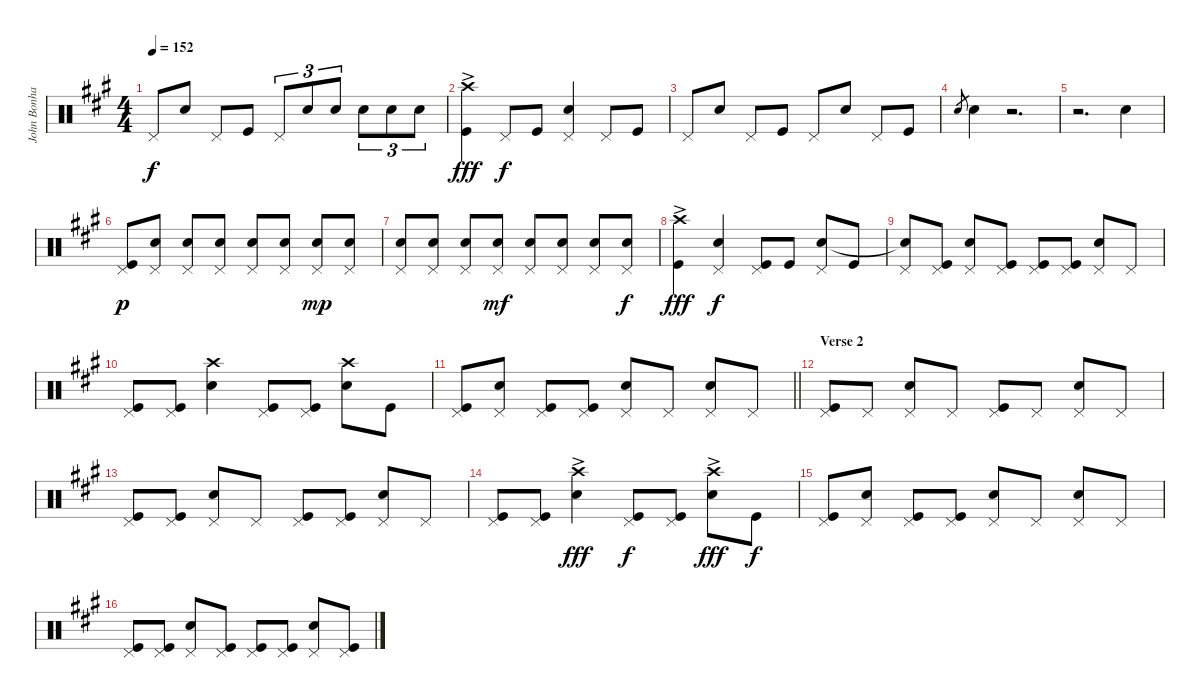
\track ("John Bonham" "John Bonha") {instrument percussion}
\staff {score}
\articulation defaults
\ts (4 4)
\tempo 152
\clef neutral
\ks a "Pedal Hi-Hat (hit)".8{dy f} "Snare (hit) 2".8 "Pedal Hi-Hat (hit)".8 "Kick (hit)".8 "Pedal Hi-Hat (hit)".8{tu (3 2)} "Snare (hit) 2".8{tu (3 2)} "Snare (hit) 2".8{tu (3 2)} "Snare (hit) 2".8{tu (3 2)} "Snare (hit) 2".8{tu (3 2)} "Snare (hit) 2".8{tu (3 2)}
|
("Crash high (hit)"{ac} "Kick (hit)").4{dy fff} "Pedal Hi-Hat (hit)".8{dy f} "Kick (hit)".8 ("Pedal Hi-Hat (hit)" "Snare (hit) 2").4 "Pedal Hi-Hat (hit)".8 "Kick (hit)".8 |
"Pedal Hi-Hat (hit)".8 "Snare (hit) 2".8 "Pedal Hi-Hat (hit)".8 "Kick (hit)".8 "Pedal Hi-Hat (hit)".8 "Snare (hit) 2".8 "Pedal Hi-Hat (hit)".8 "Kick (hit)".8 |
"Snare (hit) 2".8{gr} "Snare (hit) 2".4 r.2{d} |
r.2{d} "Snare (hit) 2".4 |
("Pedal Hi-Hat (hit)" "Kick (hit)").8{dy p} ("Pedal Hi-Hat (hit)" "Snare (hit) 2").8 ("Pedal Hi-Hat (hit)" "Snare (hit) 2").8 ("Pedal Hi-Hat (hit)" "Snare (hit) 2").8 ("Pedal Hi-Hat (hit)" "Snare (hit) 2").8 ("Pedal Hi-Hat (hit)" "Snare (hit) 2").8 ("Pedal Hi-Hat (hit)" "Snare (hit) 2").8{dy mp} ("Pedal Hi-Hat (hit)" "Snare (hit) 2").8 |
("Pedal Hi-Hat (hit)" "Snare (hit) 2").8 ("Pedal Hi-Hat (hit)" "Snare (hit) 2").8 ("Pedal Hi-Hat (hit)" "Snare (hit) 2").8 ("Pedal Hi-Hat (hit)" "Snare (hit) 2").8{dy mf} ("Pedal Hi-Hat (hit)" "Snare (hit) 2").8 ("Pedal Hi-Hat (hit)" "Snare (hit) 2").8 ("Pedal Hi-Hat (hit)" "Snare (hit) 2").8 ("Pedal Hi-Hat (hit)" "Snare (hit) 2").8{dy f} |
("Crash high (hit)"{ac} "Kick (hit)").4{dy fff} ("Pedal Hi-Hat (hit)" "Snare (hit) 2").4{dy f} ("Pedal Hi-Hat (hit)" "Kick (hit)").8 "Kick (hit)".8 ("Pedal Hi-Hat (hit)" "Snare (hit) 2").8 "Kick (hit)".8 |
("Pedal Hi-Hat (hit)" "Snare (hit)"{t}).8 ("Pedal Hi-Hat (hit)" "Kick (hit)").8 ("Pedal Hi-Hat (hit)" "Snare (hit) 2").8 ("Pedal Hi-Hat (hit)" "Kick (hit)").8 ("Pedal Hi-Hat (hit)" "Kick (hit)").8 ("Pedal Hi-Hat (hit)" "Kick (hit)").8 ("Pedal Hi-Hat (hit)" "Snare (hit) 2").8 "Pedal Hi-Hat (hit)".8 |
("Pedal Hi-Hat (hit)" "Kick (hit)").8 ("Pedal Hi-Hat (hit)" "Kick (hit)").8 ("Crash high (hit)" "Snare (hit) 2").4 ("Pedal Hi-Hat (hit)" "Kick (hit)").8 ("Pedal Hi-Hat (hit)" "Kick (hit)").8 ("Crash high (hit)" "Snare (hit) 2").8 "Kick (hit)".8 |
\barLineRight lightlight
("Pedal Hi-Hat (hit)" "Kick (hit)").8 ("Pedal Hi-Hat (hit)" "Snare (hit) 2").8 ("Pedal Hi-Hat (hit)" "Kick (hit)").8 ("Pedal Hi-Hat (hit)" "Kick (hit)").8 ("Pedal Hi-Hat (hit)" "Snare (hit) 2").8 "Pedal Hi-Hat (hit)".8 ("Pedal Hi-Hat (hit)" "Snare (hit) 2").8 "Pedal Hi-Hat (hit)".8 |
\section ("" "Verse 2")
("Pedal Hi-Hat (hit)" "Kick (hit)").8 "Pedal Hi-Hat (hit)".8 ("Pedal Hi-Hat (hit)" "Snare (hit) 2").8 "Pedal Hi-Hat (hit)".8 ("Pedal Hi-Hat (hit)" "Kick (hit)").8 "Pedal Hi-Hat (hit)".8 ("Pedal Hi-Hat (hit)" "Snare (hit) 2").8 "Pedal Hi-Hat (hit)".8 |
("Pedal Hi-Hat (hit)" "Kick (hit)").8 ("Pedal Hi-Hat (hit)" "Kick (hit)").8 ("Pedal Hi-Hat (hit)" "Snare (hit) 2").8 "Pedal Hi-Hat (hit)".8 ("Pedal Hi-Hat (hit)" "Kick (hit)").8 ("Pedal Hi-Hat (hit)" "Kick (hit)").8 ("Pedal Hi-Hat (hit)" "Snare (hit) 2").8 "Pedal Hi-Hat (hit)".8 |
("Pedal Hi-Hat (hit)" "Kick (hit)").8 ("Pedal Hi-Hat (hit)" "Kick (hit)").8 ("Crash high (hit)"{ac} "Snare (hit) 2").4{dy fff} ("Pedal Hi-Hat (hit)" "Kick (hit)").8{dy f} ("Pedal Hi-Hat (hit)" "Kick (hit)").8 ("Crash high (hit)"{ac} "Snare (hit) 2").8{dy fff} "Kick (hit)".8{dy f} |
("Pedal Hi-Hat (hit)" "Kick (hit)").8 ("Pedal Hi-Hat (hit)" "Snare (hit) 2").8 ("Pedal Hi-Hat (hit)" "Kick (hit)").8 ("Pedal Hi-Hat (hit)" "Kick (hit)").8 ("Pedal Hi-Hat (hit)" "Snare (hit) 2").8 "Pedal Hi-Hat (hit)".8 ("Pedal Hi-Hat (hit)" "Snare (hit) 2").8 "Pedal Hi-Hat (hit)".8 |
("Pedal Hi-Hat (hit)" "Kick (hit)").8 ("Pedal Hi-Hat (hit)" "Kick (hit)").8 ("Pedal Hi-Hat (hit)" "Snare (hit) 2").8 ("Pedal Hi-Hat (hit)" "Kick (hit)").8 ("Pedal Hi-Hat (hit)" "Kick (hit)").8 ("Pedal Hi-Hat (hit)" "Kick (hit)").8 ("Pedal Hi-Hat (hit)" "Snare (hit) 2").8 ("Pedal Hi-Hat (hit)" "Kick (hit)").8
